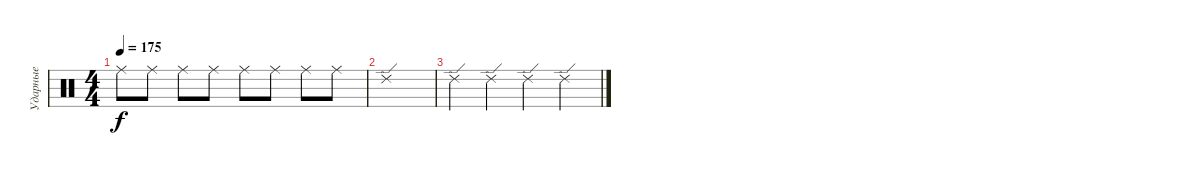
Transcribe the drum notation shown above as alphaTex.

\track ("Ударные" "Ударные") {instrument percussion}
\staff {score}
\articulation defaults
\ts (4 4)
\tempo 175
\clef neutral
\ks c "Ride (middle)".8{dy f} "Ride (middle)".8 "Ride (middle)".8 "Ride (middle)".8 "Ride (middle)".8 "Ride (middle)".8 "Ride (middle)".8 "Ride (middle)".8
|
"Ride (edge) 2".1 |
"Ride (edge) 2".4 "Ride (edge) 2".4 "Ride (edge) 2".4 "Ride (edge) 2".4
